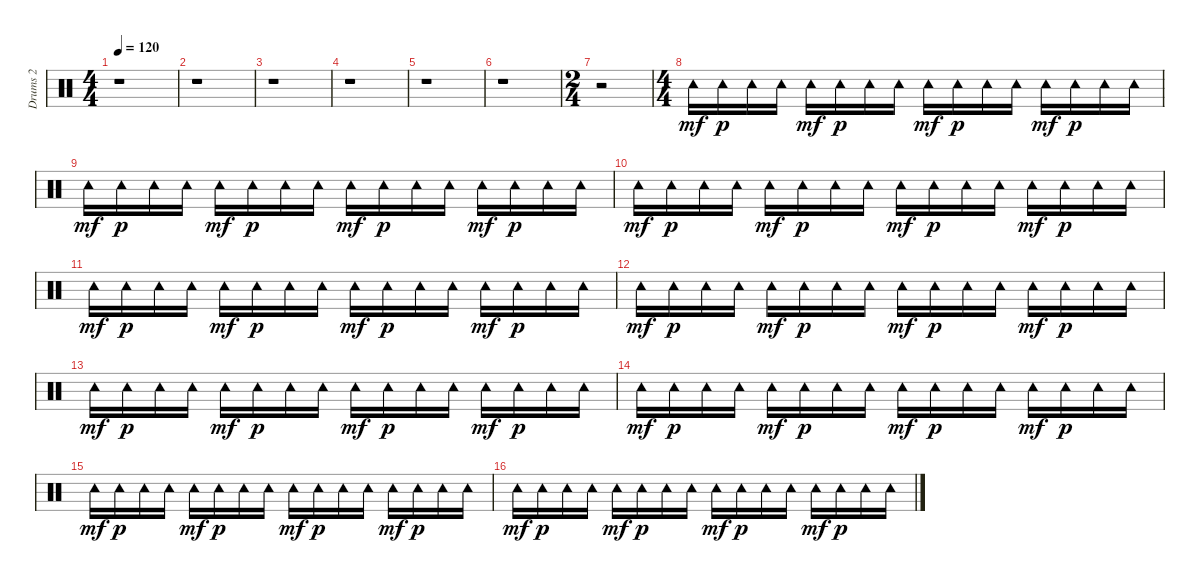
\track ("Drums 2" "Drums 2") {instrument percussion}
\staff {score}
\articulation defaults
\ts (4 4)
\tempo 120
\clef neutral
\ks c
r.1{dy mf} |
r.1 |
r.1 |
r.1 |
r.1 |
r.1 |
\ts (2 4)
r.2 |
\ts (4 4)
"Tambourine (hit)".16 "Tambourine (hit)".16{dy p} "Tambourine (hit)".16 "Tambourine (hit)".16 "Tambourine (hit)".16{dy mf} "Tambourine (hit)".16{dy p} "Tambourine (hit)".16 "Tambourine (hit)".16 "Tambourine (hit)".16{dy mf} "Tambourine (hit)".16{dy p} "Tambourine (hit)".16 "Tambourine (hit)".16 "Tambourine (hit)".16{dy mf} "Tambourine (hit)".16{dy p} "Tambourine (hit)".16 "Tambourine (hit)".16 |
"Tambourine (hit)".16{dy mf} "Tambourine (hit)".16{dy p} "Tambourine (hit)".16 "Tambourine (hit)".16 "Tambourine (hit)".16{dy mf} "Tambourine (hit)".16{dy p} "Tambourine (hit)".16 "Tambourine (hit)".16 "Tambourine (hit)".16{dy mf} "Tambourine (hit)".16{dy p} "Tambourine (hit)".16 "Tambourine (hit)".16 "Tambourine (hit)".16{dy mf} "Tambourine (hit)".16{dy p} "Tambourine (hit)".16 "Tambourine (hit)".16 |
"Tambourine (hit)".16{dy mf} "Tambourine (hit)".16{dy p} "Tambourine (hit)".16 "Tambourine (hit)".16 "Tambourine (hit)".16{dy mf} "Tambourine (hit)".16{dy p} "Tambourine (hit)".16 "Tambourine (hit)".16 "Tambourine (hit)".16{dy mf} "Tambourine (hit)".16{dy p} "Tambourine (hit)".16 "Tambourine (hit)".16 "Tambourine (hit)".16{dy mf} "Tambourine (hit)".16{dy p} "Tambourine (hit)".16 "Tambourine (hit)".16 |
"Tambourine (hit)".16{dy mf} "Tambourine (hit)".16{dy p} "Tambourine (hit)".16 "Tambourine (hit)".16 "Tambourine (hit)".16{dy mf} "Tambourine (hit)".16{dy p} "Tambourine (hit)".16 "Tambourine (hit)".16 "Tambourine (hit)".16{dy mf} "Tambourine (hit)".16{dy p} "Tambourine (hit)".16 "Tambourine (hit)".16 "Tambourine (hit)".16{dy mf} "Tambourine (hit)".16{dy p} "Tambourine (hit)".16 "Tambourine (hit)".16 |
"Tambourine (hit)".16{dy mf} "Tambourine (hit)".16{dy p} "Tambourine (hit)".16 "Tambourine (hit)".16 "Tambourine (hit)".16{dy mf} "Tambourine (hit)".16{dy p} "Tambourine (hit)".16 "Tambourine (hit)".16 "Tambourine (hit)".16{dy mf} "Tambourine (hit)".16{dy p} "Tambourine (hit)".16 "Tambourine (hit)".16 "Tambourine (hit)".16{dy mf} "Tambourine (hit)".16{dy p} "Tambourine (hit)".16 "Tambourine (hit)".16 |
"Tambourine (hit)".16{dy mf} "Tambourine (hit)".16{dy p} "Tambourine (hit)".16 "Tambourine (hit)".16 "Tambourine (hit)".16{dy mf} "Tambourine (hit)".16{dy p} "Tambourine (hit)".16 "Tambourine (hit)".16 "Tambourine (hit)".16{dy mf} "Tambourine (hit)".16{dy p} "Tambourine (hit)".16 "Tambourine (hit)".16 "Tambourine (hit)".16{dy mf} "Tambourine (hit)".16{dy p} "Tambourine (hit)".16 "Tambourine (hit)".16 |
"Tambourine (hit)".16{dy mf} "Tambourine (hit)".16{dy p} "Tambourine (hit)".16 "Tambourine (hit)".16 "Tambourine (hit)".16{dy mf} "Tambourine (hit)".16{dy p} "Tambourine (hit)".16 "Tambourine (hit)".16 "Tambourine (hit)".16{dy mf} "Tambourine (hit)".16{dy p} "Tambourine (hit)".16 "Tambourine (hit)".16 "Tambourine (hit)".16{dy mf} "Tambourine (hit)".16{dy p} "Tambourine (hit)".16 "Tambourine (hit)".16 |
"Tambourine (hit)".16{dy mf} "Tambourine (hit)".16{dy p} "Tambourine (hit)".16 "Tambourine (hit)".16 "Tambourine (hit)".16{dy mf} "Tambourine (hit)".16{dy p} "Tambourine (hit)".16 "Tambourine (hit)".16 "Tambourine (hit)".16{dy mf} "Tambourine (hit)".16{dy p} "Tambourine (hit)".16 "Tambourine (hit)".16 "Tambourine (hit)".16{dy mf} "Tambourine (hit)".16{dy p} "Tambourine (hit)".16 "Tambourine (hit)".16 |
"Tambourine (hit)".16{dy mf} "Tambourine (hit)".16{dy p} "Tambourine (hit)".16 "Tambourine (hit)".16 "Tambourine (hit)".16{dy mf} "Tambourine (hit)".16{dy p} "Tambourine (hit)".16 "Tambourine (hit)".16 "Tambourine (hit)".16{dy mf} "Tambourine (hit)".16{dy p} "Tambourine (hit)".16 "Tambourine (hit)".16 "Tambourine (hit)".16{dy mf} "Tambourine (hit)".16{dy p} "Tambourine (hit)".16 "Tambourine (hit)".16
